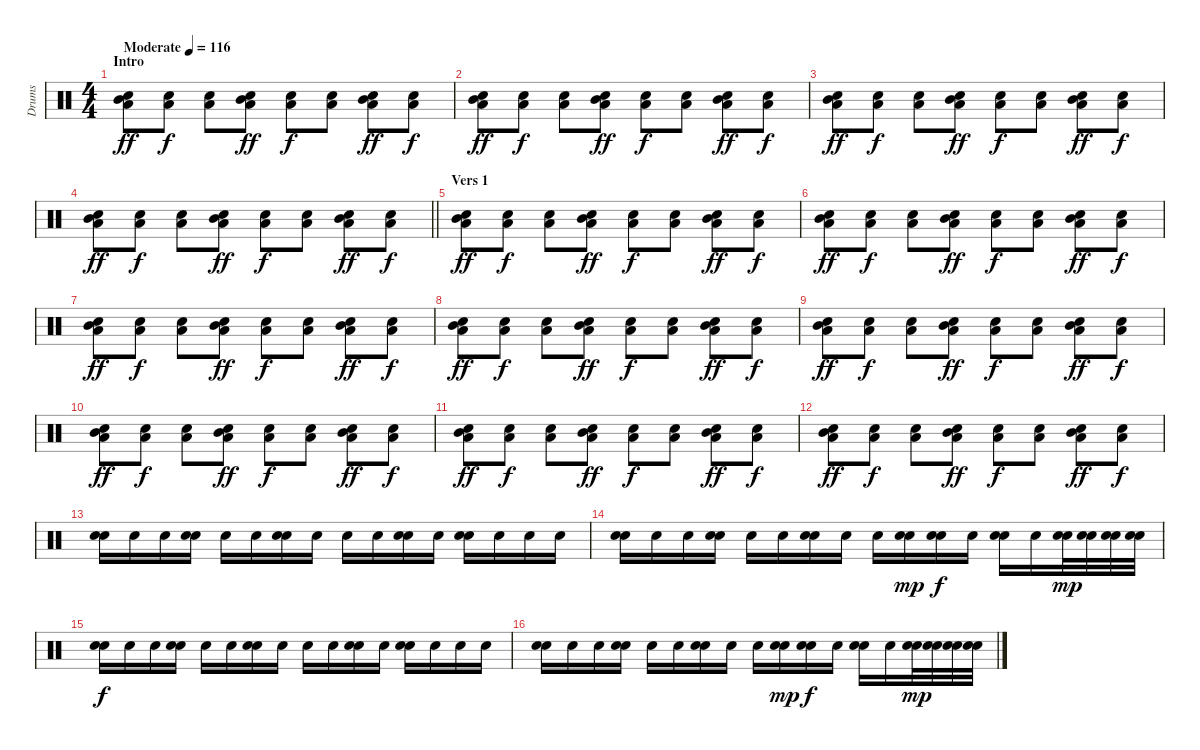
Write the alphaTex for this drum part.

\track ("Drums" "Drums") {instrument percussion}
\staff {score}
\articulation defaults
\ts (4 4)
\section ("" "Intro")
\tempo (116 "Moderate")
\clef neutral
\ks c
("Snare (hit)" "Mid Tom (hit)" "Low Tom (hit)").8{dy ff} ("Snare (hit)" "Low Tom (hit)").8{dy f} ("Snare (hit)" "Low Tom (hit)").8 ("Snare (hit)" "Mid Tom (hit)" "Low Tom (hit)").8{dy ff} ("Snare (hit)" "Low Tom (hit)").8{dy f} ("Snare (hit)" "Low Tom (hit)").8 ("Snare (hit)" "Mid Tom (hit)" "Low Tom (hit)").8{dy ff} ("Snare (hit)" "Low Tom (hit)").8{dy f} |
("Snare (hit)" "Mid Tom (hit)" "Low Tom (hit)").8{dy ff} ("Snare (hit)" "Low Tom (hit)").8{dy f} ("Snare (hit)" "Low Tom (hit)").8 ("Snare (hit)" "Mid Tom (hit)" "Low Tom (hit)").8{dy ff} ("Snare (hit)" "Low Tom (hit)").8{dy f} ("Snare (hit)" "Low Tom (hit)").8 ("Snare (hit)" "Mid Tom (hit)" "Low Tom (hit)").8{dy ff} ("Snare (hit)" "Low Tom (hit)").8{dy f} |
("Snare (hit)" "Mid Tom (hit)" "Low Tom (hit)").8{dy ff} ("Snare (hit)" "Low Tom (hit)").8{dy f} ("Snare (hit)" "Low Tom (hit)").8 ("Snare (hit)" "Mid Tom (hit)" "Low Tom (hit)").8{dy ff} ("Snare (hit)" "Low Tom (hit)").8{dy f} ("Snare (hit)" "Low Tom (hit)").8 ("Snare (hit)" "Mid Tom (hit)" "Low Tom (hit)").8{dy ff} ("Snare (hit)" "Low Tom (hit)").8{dy f} |
\barLineRight lightlight
("Snare (hit)" "Mid Tom (hit)" "Low Tom (hit)").8{dy ff} ("Snare (hit)" "Low Tom (hit)").8{dy f} ("Snare (hit)" "Low Tom (hit)").8 ("Snare (hit)" "Mid Tom (hit)" "Low Tom (hit)").8{dy ff} ("Snare (hit)" "Low Tom (hit)").8{dy f} ("Snare (hit)" "Low Tom (hit)").8 ("Snare (hit)" "Mid Tom (hit)" "Low Tom (hit)").8{dy ff} ("Snare (hit)" "Low Tom (hit)").8{dy f} |
\section ("" "Vers 1")
("Snare (hit)" "Mid Tom (hit)" "Low Tom (hit)").8{dy ff} ("Snare (hit)" "Low Tom (hit)").8{dy f} ("Snare (hit)" "Low Tom (hit)").8 ("Snare (hit)" "Mid Tom (hit)" "Low Tom (hit)").8{dy ff} ("Snare (hit)" "Low Tom (hit)").8{dy f} ("Snare (hit)" "Low Tom (hit)").8 ("Snare (hit)" "Mid Tom (hit)" "Low Tom (hit)").8{dy ff} ("Snare (hit)" "Low Tom (hit)").8{dy f} |
("Snare (hit)" "Mid Tom (hit)" "Low Tom (hit)").8{dy ff} ("Snare (hit)" "Low Tom (hit)").8{dy f} ("Snare (hit)" "Low Tom (hit)").8 ("Snare (hit)" "Mid Tom (hit)" "Low Tom (hit)").8{dy ff} ("Snare (hit)" "Low Tom (hit)").8{dy f} ("Snare (hit)" "Low Tom (hit)").8 ("Snare (hit)" "Mid Tom (hit)" "Low Tom (hit)").8{dy ff} ("Snare (hit)" "Low Tom (hit)").8{dy f} |
("Snare (hit)" "Mid Tom (hit)" "Low Tom (hit)").8{dy ff} ("Snare (hit)" "Low Tom (hit)").8{dy f} ("Snare (hit)" "Low Tom (hit)").8 ("Snare (hit)" "Mid Tom (hit)" "Low Tom (hit)").8{dy ff} ("Snare (hit)" "Low Tom (hit)").8{dy f} ("Snare (hit)" "Low Tom (hit)").8 ("Snare (hit)" "Mid Tom (hit)" "Low Tom (hit)").8{dy ff} ("Snare (hit)" "Low Tom (hit)").8{dy f} |
("Snare (hit)" "Mid Tom (hit)" "Low Tom (hit)").8{dy ff} ("Snare (hit)" "Low Tom (hit)").8{dy f} ("Snare (hit)" "Low Tom (hit)").8 ("Snare (hit)" "Mid Tom (hit)" "Low Tom (hit)").8{dy ff} ("Snare (hit)" "Low Tom (hit)").8{dy f} ("Snare (hit)" "Low Tom (hit)").8 ("Snare (hit)" "Mid Tom (hit)" "Low Tom (hit)").8{dy ff} ("Snare (hit)" "Low Tom (hit)").8{dy f} |
("Snare (hit)" "Mid Tom (hit)" "Low Tom (hit)").8{dy ff} ("Snare (hit)" "Low Tom (hit)").8{dy f} ("Snare (hit)" "Low Tom (hit)").8 ("Snare (hit)" "Mid Tom (hit)" "Low Tom (hit)").8{dy ff} ("Snare (hit)" "Low Tom (hit)").8{dy f} ("Snare (hit)" "Low Tom (hit)").8 ("Snare (hit)" "Mid Tom (hit)" "Low Tom (hit)").8{dy ff} ("Snare (hit)" "Low Tom (hit)").8{dy f} |
("Snare (hit)" "Mid Tom (hit)" "Low Tom (hit)").8{dy ff} ("Snare (hit)" "Low Tom (hit)").8{dy f} ("Snare (hit)" "Low Tom (hit)").8 ("Snare (hit)" "Mid Tom (hit)" "Low Tom (hit)").8{dy ff} ("Snare (hit)" "Low Tom (hit)").8{dy f} ("Snare (hit)" "Low Tom (hit)").8 ("Snare (hit)" "Mid Tom (hit)" "Low Tom (hit)").8{dy ff} ("Snare (hit)" "Low Tom (hit)").8{dy f} |
("Snare (hit)" "Mid Tom (hit)" "Low Tom (hit)").8{dy ff} ("Snare (hit)" "Low Tom (hit)").8{dy f} ("Snare (hit)" "Low Tom (hit)").8 ("Snare (hit)" "Mid Tom (hit)" "Low Tom (hit)").8{dy ff} ("Snare (hit)" "Low Tom (hit)").8{dy f} ("Snare (hit)" "Low Tom (hit)").8 ("Snare (hit)" "Mid Tom (hit)" "Low Tom (hit)").8{dy ff} ("Snare (hit)" "Low Tom (hit)").8{dy f} |
("Snare (hit)" "Mid Tom (hit)" "Low Tom (hit)").8{dy ff} ("Snare (hit)" "Low Tom (hit)").8{dy f} ("Snare (hit)" "Low Tom (hit)").8 ("Snare (hit)" "Mid Tom (hit)" "Low Tom (hit)").8{dy ff} ("Snare (hit)" "Low Tom (hit)").8{dy f} ("Snare (hit)" "Low Tom (hit)").8 ("Snare (hit)" "Mid Tom (hit)" "Low Tom (hit)").8{dy ff} ("Snare (hit)" "Low Tom (hit)").8{dy f} |
("Snare (hit)" "Electric Snare (hit)").16 "Snare (hit)".16 "Snare (hit)".16 ("Snare (hit)" "Electric Snare (hit)").16 "Snare (hit)".16 "Snare (hit)".16 ("Snare (hit)" "Electric Snare (hit)").16 "Snare (hit)".16 "Snare (hit)".16 "Snare (hit)".16 ("Snare (hit)" "Electric Snare (hit)").16 "Snare (hit)".16 ("Snare (hit)" "Electric Snare (hit)").16 "Snare (hit)".16 "Snare (hit)".16 "Snare (hit)".16 |
("Snare (hit)" "Electric Snare (hit)").16 "Snare (hit)".16 "Snare (hit)".16 ("Snare (hit)" "Electric Snare (hit)").16 "Snare (hit)".16 "Snare (hit)".16 ("Snare (hit)" "Electric Snare (hit)").16 "Snare (hit)".16 "Snare (hit)".16 ("Snare (hit)" "Electric Snare (hit)").16{dy mp} ("Snare (hit)" "Electric Snare (hit)").16{dy f} "Snare (hit)".16 ("Snare (hit)" "Electric Snare (hit)").16 "Snare (hit)".16 ("Snare (hit)" "Electric Snare (hit)").32{dy mp} ("Snare (hit)" "Electric Snare (hit)").32 ("Snare (hit)" "Electric Snare (hit)").32 ("Snare (hit)" "Electric Snare (hit)").32 |
("Snare (hit)" "Electric Snare (hit)").16{dy f} "Snare (hit)".16 "Snare (hit)".16 ("Snare (hit)" "Electric Snare (hit)").16 "Snare (hit)".16 "Snare (hit)".16 ("Snare (hit)" "Electric Snare (hit)").16 "Snare (hit)".16 "Snare (hit)".16 "Snare (hit)".16 ("Snare (hit)" "Electric Snare (hit)").16 "Snare (hit)".16 ("Snare (hit)" "Electric Snare (hit)").16 "Snare (hit)".16 "Snare (hit)".16 "Snare (hit)".16 |
("Snare (hit)" "Electric Snare (hit)").16 "Snare (hit)".16 "Snare (hit)".16 ("Snare (hit)" "Electric Snare (hit)").16 "Snare (hit)".16 "Snare (hit)".16 ("Snare (hit)" "Electric Snare (hit)").16 "Snare (hit)".16 "Snare (hit)".16 ("Snare (hit)" "Electric Snare (hit)").16{dy mp} ("Snare (hit)" "Electric Snare (hit)").16{dy f} "Snare (hit)".16 ("Snare (hit)" "Electric Snare (hit)").16 "Snare (hit)".16 ("Snare (hit)" "Electric Snare (hit)").32{dy mp} ("Snare (hit)" "Electric Snare (hit)").32 ("Snare (hit)" "Electric Snare (hit)").32 ("Snare (hit)" "Electric Snare (hit)").32
